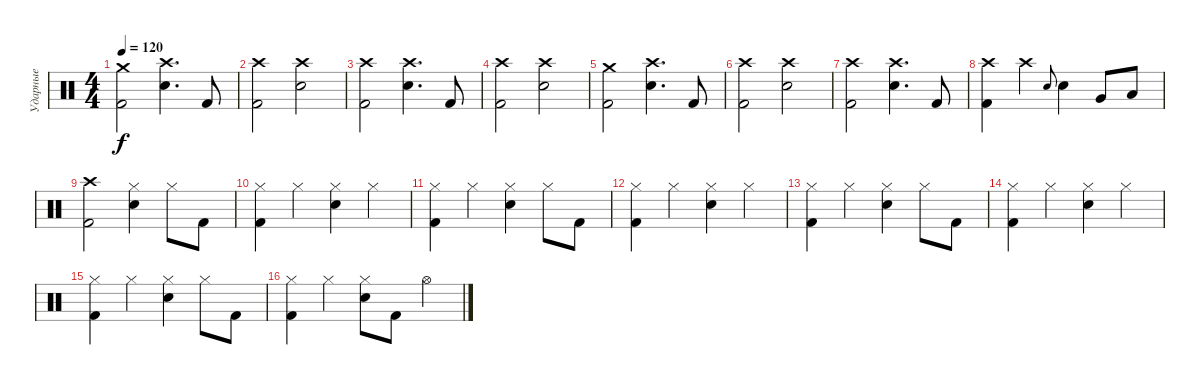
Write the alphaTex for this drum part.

\track ("Ударные" "Ударные") {instrument percussion}
\staff {score}
\articulation defaults
\ts (4 4)
\tempo 120
\clef neutral
\ks c
("Crash medium (hit)" "Kick (hit) 2").2{dy f} ("Crash high (hit)" "Snare (hit) 2").4{d} "Kick (hit) 2".8 |
("Crash high (hit)" "Kick (hit) 2").2 ("Crash high (hit)" "Snare (hit) 2").2 |
("Crash high (hit)" "Kick (hit) 2").2 ("Crash high (hit)" "Snare (hit) 2").4{d} "Kick (hit) 2".8 |
("Crash high (hit)" "Kick (hit) 2").2 ("Crash high (hit)" "Snare (hit) 2").2 |
("Crash medium (hit)" "Kick (hit) 2").2 ("Crash high (hit)" "Snare (hit) 2").4{d} "Kick (hit) 2".8 |
("Crash high (hit)" "Kick (hit) 2").2 ("Crash high (hit)" "Snare (hit) 2").2 |
("Crash high (hit)" "Kick (hit) 2").2 ("Crash high (hit)" "Snare (hit) 2").4{d} "Kick (hit) 2".8 |
("Crash high (hit)" "Kick (hit) 2").4 "Crash high (hit)".4 "Snare (hit) 2".8{gr onbeat} "Snare (hit) 2".4 "Very Low Tom (hit)".8 "Low Floor Tom (hit)".8 |
("Crash high (hit)" "Kick (hit) 2").2 ("Hi-Hat (closed)" "Snare (hit) 2").4 "Hi-Hat (closed)".8 "Kick (hit) 2".8 |
("Hi-Hat (closed)" "Kick (hit) 2").4 "Hi-Hat (closed)".4 ("Hi-Hat (closed)" "Snare (hit) 2").4 "Hi-Hat (closed)".4 |
("Hi-Hat (closed)" "Kick (hit) 2").4 "Hi-Hat (closed)".4 ("Hi-Hat (closed)" "Snare (hit) 2").4 "Hi-Hat (closed)".8 "Kick (hit) 2".8 |
("Hi-Hat (closed)" "Kick (hit) 2").4 "Hi-Hat (closed)".4 ("Hi-Hat (closed)" "Snare (hit) 2").4 "Hi-Hat (closed)".4 |
("Hi-Hat (closed)" "Kick (hit) 2").4 "Hi-Hat (closed)".4 ("Hi-Hat (closed)" "Snare (hit) 2").4 "Hi-Hat (closed)".8 "Kick (hit) 2".8 |
("Hi-Hat (closed)" "Kick (hit) 2").4 "Hi-Hat (closed)".4 ("Hi-Hat (closed)" "Snare (hit) 2").4 "Hi-Hat (closed)".4 |
("Hi-Hat (closed)" "Kick (hit) 2").4 "Hi-Hat (closed)".4 ("Hi-Hat (closed)" "Snare (hit) 2").4 "Hi-Hat (closed)".8 "Kick (hit) 2".8 |
("Hi-Hat (closed)" "Kick (hit) 2").4 "Hi-Hat (closed)".4 ("Hi-Hat (closed)" "Snare (hit) 2").8 "Kick (hit) 2".8 "Hi-Hat (open)".4
